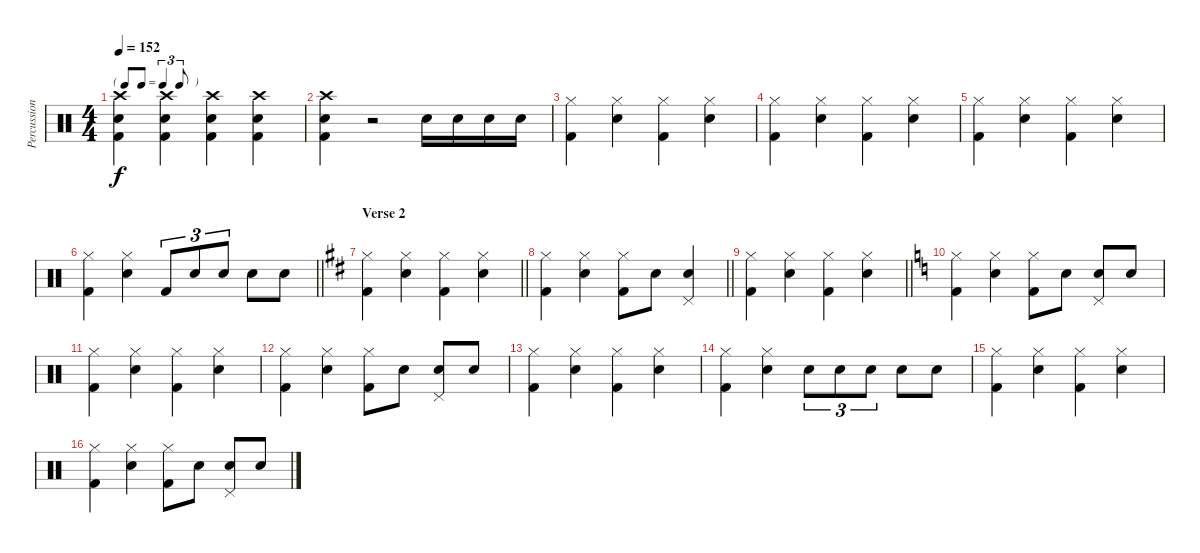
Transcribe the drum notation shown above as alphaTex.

\track ("Percussion" "Percussion") {instrument percussion}
\staff {score}
\articulation defaults
\ts (4 4)
\tf triplet8th
\tempo 152
\clef neutral
\ks c
("Crash high (hit)" "Snare (hit) 2" "Kick (hit) 2").4{dy f} ("Crash high (hit)" "Snare (hit) 2" "Kick (hit) 2").4 ("Crash high (hit)" "Snare (hit) 2" "Kick (hit) 2").4 ("Crash high (hit)" "Snare (hit) 2" "Kick (hit) 2").4 |
("Crash high (hit)" "Snare (hit) 2" "Kick (hit) 2").4 r.2 "Snare (hit) 2".16 "Snare (hit) 2".16 "Snare (hit) 2".16 "Snare (hit) 2".16 |
("Hi-Hat (closed)" "Kick (hit) 2").4 ("Hi-Hat (closed)" "Snare (hit) 2").4 ("Hi-Hat (closed)" "Kick (hit) 2").4 ("Hi-Hat (closed)" "Snare (hit) 2").4 |
("Hi-Hat (closed)" "Kick (hit) 2").4 ("Hi-Hat (closed)" "Snare (hit) 2").4 ("Hi-Hat (closed)" "Kick (hit) 2").4 ("Hi-Hat (closed)" "Snare (hit) 2").4 |
("Hi-Hat (closed)" "Kick (hit) 2").4 ("Hi-Hat (closed)" "Snare (hit) 2").4 ("Hi-Hat (closed)" "Kick (hit) 2").4 ("Hi-Hat (closed)" "Snare (hit) 2").4 |
\barLineRight lightlight
("Hi-Hat (closed)" "Kick (hit) 2").4 ("Hi-Hat (closed)" "Snare (hit) 2").4 "Kick (hit) 2".8{tu (3 2)} "Snare (hit) 2".8{tu (3 2)} "Snare (hit) 2".8{tu (3 2)} "Snare (hit) 2".8 "Snare (hit) 2".8 |
\section ("" "Verse 2")
\barLineRight lightlight
\ks d
("Hi-Hat (closed)" "Kick (hit) 2").4 ("Hi-Hat (closed)" "Snare (hit) 2").4 ("Hi-Hat (closed)" "Kick (hit) 2").4 ("Hi-Hat (closed)" "Snare (hit) 2").4 |
\barLineRight lightlight
("Hi-Hat (closed)" "Kick (hit) 2").4 ("Hi-Hat (closed)" "Snare (hit) 2").4 ("Hi-Hat (closed)" "Kick (hit) 2").8 "Snare (hit) 2".8 ("Snare (hit) 2" "Pedal Hi-Hat (hit)").4 |
\barLineRight lightlight
("Hi-Hat (closed)" "Kick (hit) 2").4 ("Hi-Hat (closed)" "Snare (hit) 2").4 ("Hi-Hat (closed)" "Kick (hit) 2").4 ("Hi-Hat (closed)" "Snare (hit) 2").4 |
\ks c
("Hi-Hat (closed)" "Kick (hit) 2").4 ("Hi-Hat (closed)" "Snare (hit) 2").4 ("Hi-Hat (closed)" "Kick (hit) 2").8 "Snare (hit) 2".8 ("Snare (hit) 2" "Pedal Hi-Hat (hit)").8 "Snare (hit) 2".8 |
("Hi-Hat (closed)" "Kick (hit) 2").4 ("Hi-Hat (closed)" "Snare (hit) 2").4 ("Hi-Hat (closed)" "Kick (hit) 2").4 ("Hi-Hat (closed)" "Snare (hit) 2").4 |
("Hi-Hat (closed)" "Kick (hit) 2").4 ("Hi-Hat (closed)" "Snare (hit) 2").4 ("Hi-Hat (closed)" "Kick (hit) 2").8 "Snare (hit) 2".8 ("Snare (hit) 2" "Pedal Hi-Hat (hit)").8 "Snare (hit) 2".8 |
("Hi-Hat (closed)" "Kick (hit) 2").4 ("Hi-Hat (closed)" "Snare (hit) 2").4 ("Hi-Hat (closed)" "Kick (hit) 2").4 ("Hi-Hat (closed)" "Snare (hit) 2").4 |
("Hi-Hat (closed)" "Kick (hit) 2").4 ("Hi-Hat (closed)" "Snare (hit) 2").4 "Snare (hit) 2".8{tu (3 2)} "Snare (hit) 2".8{tu (3 2)} "Snare (hit) 2".8{tu (3 2)} "Snare (hit) 2".8 "Snare (hit) 2".8 |
("Hi-Hat (closed)" "Kick (hit) 2").4 ("Hi-Hat (closed)" "Snare (hit) 2").4 ("Hi-Hat (closed)" "Kick (hit) 2").4 ("Hi-Hat (closed)" "Snare (hit) 2").4 |
("Hi-Hat (closed)" "Kick (hit) 2").4 ("Hi-Hat (closed)" "Snare (hit) 2").4 ("Hi-Hat (closed)" "Kick (hit) 2").8 "Snare (hit) 2".8 ("Snare (hit) 2" "Pedal Hi-Hat (hit)").8 "Snare (hit) 2".8
